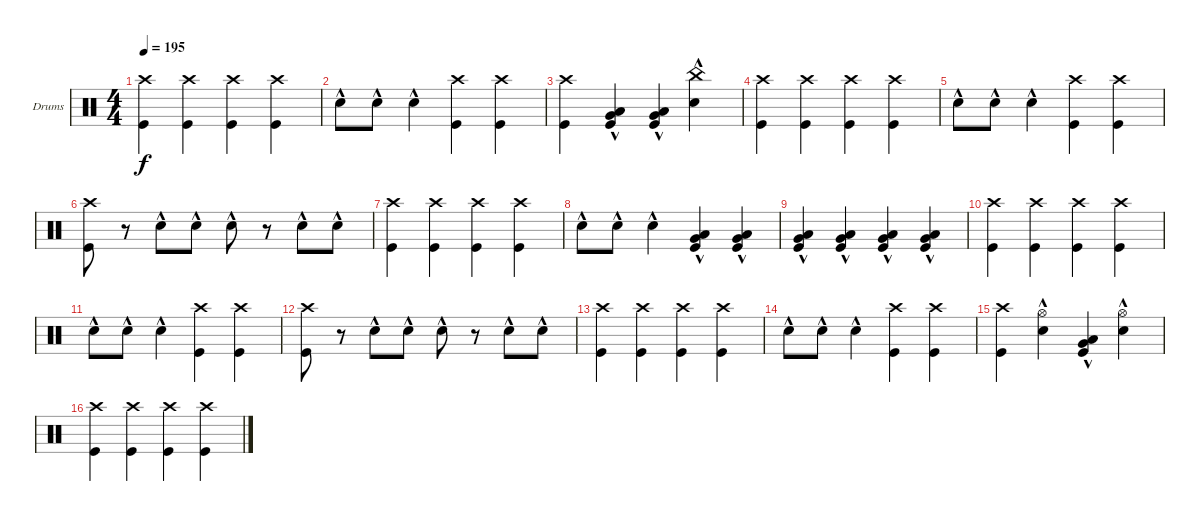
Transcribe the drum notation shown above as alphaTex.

\defaultSystemsLayout 4
\bracketExtendMode groupsimilarinstruments
\firstSystemTrackNameOrientation horizontal
\otherSystemsTrackNameOrientation horizontal
\track ("Drumkit" "Drums") {instrument percussion}
\staff {score}
\articulation defaults
\ts (4 4)
\tempo 195
\clef neutral
\ks c
("Kick (hit)" "Crash high (hit)").4{dy f} ("Kick (hit)" "Crash high (hit)").4 ("Kick (hit)" "Crash high (hit)").4 ("Kick (hit)" "Crash high (hit)").4 |
"Snare (hit) 2"{hac}.8 "Snare (hit) 2"{hac}.8 "Snare (hit) 2"{hac}.4 ("Kick (hit)" "Crash high (hit)").4 ("Kick (hit)" "Crash high (hit)").4 |
("Kick (hit)" "Crash high (hit)").4 ("Low Tom (hit)"{hac} "Very Low Tom (hit)"{hac} "Kick (hit)").4 ("Low Tom (hit)"{hac} "Very Low Tom (hit)"{hac} "Kick (hit)").4 ("Snare (hit) 2"{hac} "China (hit)"{hac}).4 |
("Kick (hit)" "Crash high (hit)").4 ("Kick (hit)" "Crash high (hit)").4 ("Kick (hit)" "Crash high (hit)").4 ("Kick (hit)" "Crash high (hit)").4 |
"Snare (hit) 2"{hac}.8 "Snare (hit) 2"{hac}.8 "Snare (hit) 2"{hac}.4 ("Kick (hit)" "Crash high (hit)").4 ("Kick (hit)" "Crash high (hit)").4 |
("Kick (hit)" "Crash high (hit)").8 r.8 "Snare (hit) 2"{hac}.8 "Snare (hit) 2"{hac}.8 "Snare (hit) 2"{hac}.8 r.8 "Snare (hit) 2"{hac}.8 "Snare (hit) 2"{hac}.8 |
("Kick (hit)" "Crash high (hit)").4 ("Kick (hit)" "Crash high (hit)").4 ("Kick (hit)" "Crash high (hit)").4 ("Kick (hit)" "Crash high (hit)").4 |
"Snare (hit) 2"{hac}.8 "Snare (hit) 2"{hac}.8 "Snare (hit) 2"{hac}.4 ("Low Tom (hit)"{hac} "Very Low Tom (hit)"{hac} "Kick (hit)").4 ("Low Tom (hit)"{hac} "Very Low Tom (hit)"{hac} "Kick (hit)").4 |
("Low Tom (hit)"{hac} "Very Low Tom (hit)"{hac} "Kick (hit)").4 ("Low Tom (hit)"{hac} "Very Low Tom (hit)"{hac} "Kick (hit)").4 ("Low Tom (hit)"{hac} "Very Low Tom (hit)"{hac} "Kick (hit)").4 ("Low Tom (hit)"{hac} "Very Low Tom (hit)"{hac} "Kick (hit)").4 |
("Kick (hit)" "Crash high (hit)").4 ("Kick (hit)" "Crash high (hit)").4 ("Kick (hit)" "Crash high (hit)").4 ("Kick (hit)" "Crash high (hit)").4 |
"Snare (hit) 2"{hac}.8 "Snare (hit) 2"{hac}.8 "Snare (hit) 2"{hac}.4 ("Kick (hit)" "Crash high (hit)").4 ("Kick (hit)" "Crash high (hit)").4 |
("Kick (hit)" "Crash high (hit)").8 r.8 "Snare (hit) 2"{hac}.8 "Snare (hit) 2"{hac}.8 "Snare (hit) 2"{hac}.8 r.8 "Snare (hit) 2"{hac}.8 "Snare (hit) 2"{hac}.8 |
("Kick (hit)" "Crash high (hit)").4 ("Kick (hit)" "Crash high (hit)").4 ("Kick (hit)" "Crash high (hit)").4 ("Kick (hit)" "Crash high (hit)").4 |
"Snare (hit) 2"{hac}.8 "Snare (hit) 2"{hac}.8 "Snare (hit) 2"{hac}.4 ("Kick (hit)" "Crash high (hit)").4 ("Kick (hit)" "Crash high (hit)").4 |
("Kick (hit)" "Crash high (hit)").4 ("Snare (hit) 2"{hac} "Hi-Hat (open)").4 ("Low Tom (hit)"{hac} "Very Low Tom (hit)"{hac} "Kick (hit)").4 ("Snare (hit) 2"{hac} "Hi-Hat (open)").4 |
("Kick (hit)" "Crash high (hit)").4 ("Kick (hit)" "Crash high (hit)").4 ("Kick (hit)" "Crash high (hit)").4 ("Kick (hit)" "Crash high (hit)").4
